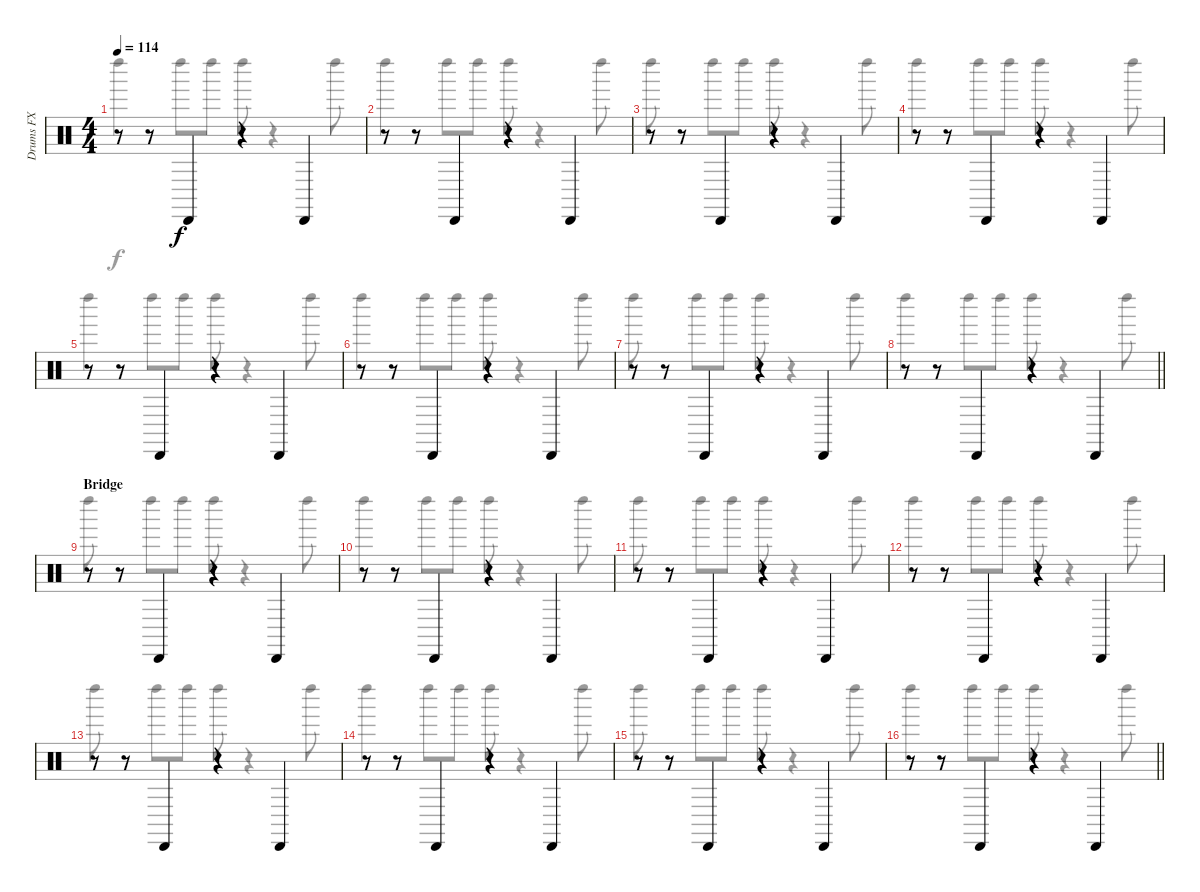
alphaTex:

\track ("Drums FX" "Drums FX") {instrument percussion}
\staff {score}
\articulation defaults
\voice
\ts (4 4)
\tempo 114
\clef neutral
\ks c
r.8{dy f} r.8 "Cabasa (hit)".4 r.4 "Cabasa (hit)".4 |
r.8 r.8 "Cabasa (hit)".4 r.4 "Cabasa (hit)".4 |
r.8 r.8 "Cabasa (hit)".4 r.4 "Cabasa (hit)".4 |
r.8 r.8 "Cabasa (hit)".4 r.4 "Cabasa (hit)".4 |
r.8 r.8 "Cabasa (hit)".4 r.4 "Cabasa (hit)".4 |
r.8 r.8 "Cabasa (hit)".4 r.4 "Cabasa (hit)".4 |
r.8 r.8 "Cabasa (hit)".4 r.4 "Cabasa (hit)".4 |
\barLineRight lightlight
r.8 r.8 "Cabasa (hit)".4 r.4 "Cabasa (hit)".4 |
\section ("" "Bridge")
r.8 r.8 "Cabasa (hit)".4 r.4 "Cabasa (hit)".4 |
r.8 r.8 "Cabasa (hit)".4 r.4 "Cabasa (hit)".4 |
r.8 r.8 "Cabasa (hit)".4 r.4 "Cabasa (hit)".4 |
r.8 r.8 "Cabasa (hit)".4 r.4 "Cabasa (hit)".4 |
r.8 r.8 "Cabasa (hit)".4 r.4 "Cabasa (hit)".4 |
r.8 r.8 "Cabasa (hit)".4 r.4 "Cabasa (hit)".4 |
r.8 r.8 "Cabasa (hit)".4 r.4 "Cabasa (hit)".4 |
\barLineRight lightlight
r.8 r.8 "Cabasa (hit)".4 r.4 "Cabasa (hit)".4
\voice
\clef neutral
\ottava regular
\simile none
\ks c "Left Maraca (hit)".4{dy f} "Left Maraca (hit)".8 "Left Maraca (hit)".8 "Left Maraca (hit)".8
r.4 "Left Maraca (hit)".8 |
"Left Maraca (hit)".4 "Left Maraca (hit)".8 "Left Maraca (hit)".8 "Left Maraca (hit)".8 r.4 "Left Maraca (hit)".8 |
"Left Maraca (hit)".8 r.8 "Left Maraca (hit)".8 "Left Maraca (hit)".8 "Left Maraca (hit)".8 r.4 "Left Maraca (hit)".8 |
"Left Maraca (hit)".4 "Left Maraca (hit)".8 "Left Maraca (hit)".8 "Left Maraca (hit)".8 r.4 "Left Maraca (hit)".8 |
"Left Maraca (hit)".4 "Left Maraca (hit)".8 "Left Maraca (hit)".8 "Left Maraca (hit)".8 r.4 "Left Maraca (hit)".8 |
"Left Maraca (hit)".4 "Left Maraca (hit)".8 "Left Maraca (hit)".8 "Left Maraca (hit)".8 r.4 "Left Maraca (hit)".8 |
"Left Maraca (hit)".8 r.8 "Left Maraca (hit)".8 "Left Maraca (hit)".8 "Left Maraca (hit)".8 r.4 "Left Maraca (hit)".8 |
\barLineRight lightlight "Left Maraca (hit)".4 "Left Maraca (hit)".8 "Left Maraca (hit)".8 "Left Maraca (hit)".8
r.4 "Left Maraca (hit)".8 |
"Left Maraca (hit)".8 r.8 "Left Maraca (hit)".8 "Left Maraca (hit)".8 "Left Maraca (hit)".8 r.4 "Left Maraca (hit)".8 |
"Left Maraca (hit)".4 "Left Maraca (hit)".8 "Left Maraca (hit)".8 "Left Maraca (hit)".8 r.4 "Left Maraca (hit)".8 |
"Left Maraca (hit)".8 r.8 "Left Maraca (hit)".8 "Left Maraca (hit)".8 "Left Maraca (hit)".8 r.4 "Left Maraca (hit)".8 |
"Left Maraca (hit)".4 "Left Maraca (hit)".8 "Left Maraca (hit)".8 "Left Maraca (hit)".8 r.4 "Left Maraca (hit)".8 |
"Left Maraca (hit)".8 r.8 "Left Maraca (hit)".8 "Left Maraca (hit)".8 "Left Maraca (hit)".8 r.4 "Left Maraca (hit)".8 |
"Left Maraca (hit)".4 "Left Maraca (hit)".8 "Left Maraca (hit)".8 "Left Maraca (hit)".8 r.4 "Left Maraca (hit)".8 |
"Left Maraca (hit)".8 r.8 "Left Maraca (hit)".8 "Left Maraca (hit)".8 "Left Maraca (hit)".8 r.4 "Left Maraca (hit)".8 |
\barLineRight lightlight "Left Maraca (hit)".4 "Left Maraca (hit)".8 "Left Maraca (hit)".8 "Left Maraca (hit)".8
r.4 "Left Maraca (hit)".8
